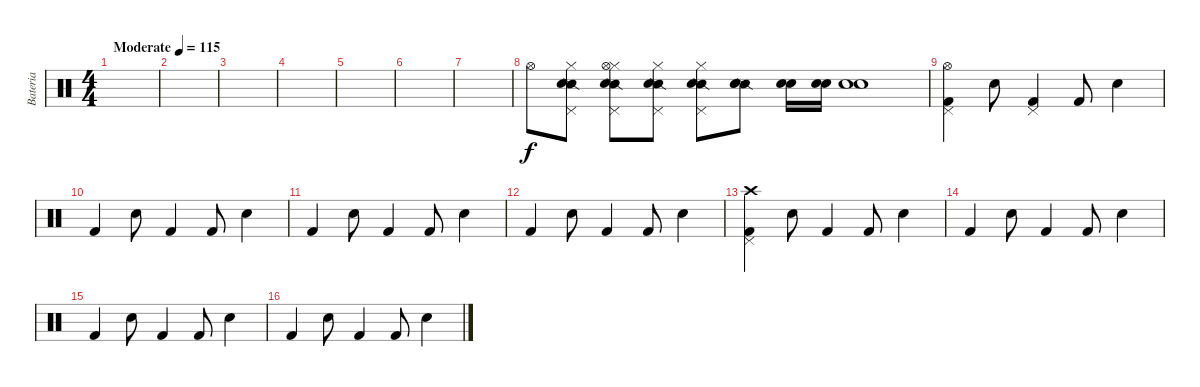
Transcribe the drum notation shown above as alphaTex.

\track ("Bateria" "Bateria") {instrument percussion}
\staff {score}
\articulation defaults
\ts (4 4)
\tempo (115 "Moderate")
\clef neutral
\ks c
|
|
|
|
|
|
|
"Hi-Hat (open)".8 ("Snare (side stick) 2" "Pedal Hi-Hat (hit)" "Hi-Hat (closed)" "Electric Snare (hit)").8 ("Snare (side stick) 2" "Pedal Hi-Hat (hit)" "Hi-Hat (closed)" "Electric Snare (hit)" "Hi-Hat (open)").8 ("Snare (side stick) 2" "Pedal Hi-Hat (hit)" "Hi-Hat (closed)" "Electric Snare (hit)").8 ("Snare (side stick) 2" "Pedal Hi-Hat (hit)" "Hi-Hat (closed)" "Electric Snare (hit)").8 ("Snare (side stick) 2" "Electric Snare (hit)" "Snare (hit) 2").8 ("Electric Snare (hit)" "Snare (hit) 2").16 ("Electric Snare (hit)" "Snare (hit) 2").16 ("Electric Snare (hit)" "Snare (hit) 2").1 |
("Pedal Hi-Hat (hit)" "Kick (hit) 2" "Hi-Hat (open)").4 "Snare (hit) 2".8 ("Pedal Hi-Hat (hit)" "Kick (hit) 2").4 "Kick (hit) 2".8 "Snare (hit) 2".4 |
"Kick (hit) 2".4 "Snare (hit) 2".8 "Kick (hit) 2".4 "Kick (hit) 2".8 "Snare (hit) 2".4 |
"Kick (hit) 2".4 "Snare (hit) 2".8 "Kick (hit) 2".4 "Kick (hit) 2".8 "Snare (hit) 2".4 |
"Kick (hit) 2".4 "Snare (hit) 2".8 "Kick (hit) 2".4 "Kick (hit) 2".8 "Snare (hit) 2".4 |
("Pedal Hi-Hat (hit)" "Kick (hit) 2" "Crash high (hit)").4 "Snare (hit) 2".8 "Kick (hit) 2".4 "Kick (hit) 2".8 "Snare (hit) 2".4 |
"Kick (hit) 2".4 "Snare (hit) 2".8 "Kick (hit) 2".4 "Kick (hit) 2".8 "Snare (hit) 2".4 |
"Kick (hit) 2".4 "Snare (hit) 2".8 "Kick (hit) 2".4 "Kick (hit) 2".8 "Snare (hit) 2".4 |
"Kick (hit) 2".4 "Snare (hit) 2".8 "Kick (hit) 2".4 "Kick (hit) 2".8 "Snare (hit) 2".4
